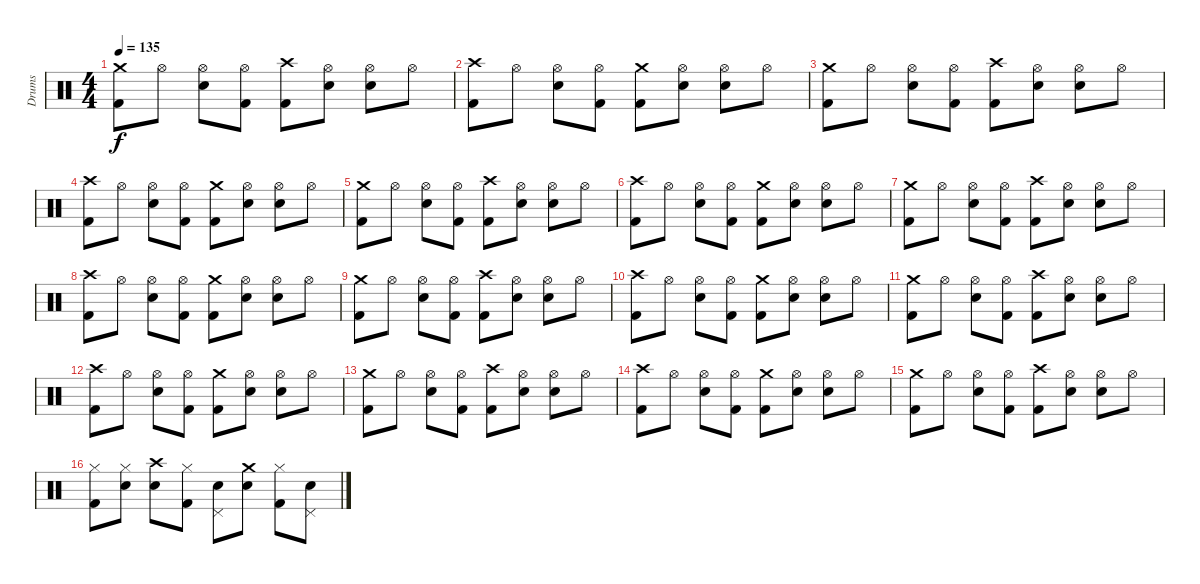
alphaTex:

\track ("Drums" "Drums") {instrument percussion}
\staff {score}
\articulation defaults
\ts (4 4)
\tempo 135
\clef neutral
\ks c
("Crash medium (hit)" "Kick (hit) 2").8{dy f} "Hi-Hat (open)".8 ("Hi-Hat (open)" "Snare (hit) 2").8 ("Hi-Hat (open)" "Kick (hit) 2").8 ("Crash high (hit)" "Kick (hit) 2").8 ("Hi-Hat (open)" "Snare (hit) 2").8 ("Hi-Hat (open)" "Snare (hit) 2").8 "Hi-Hat (open)".8 |
("Crash high (hit)" "Kick (hit) 2").8 "Hi-Hat (open)".8 ("Hi-Hat (open)" "Snare (hit) 2").8 ("Hi-Hat (open)" "Kick (hit) 2").8 ("Crash medium (hit)" "Kick (hit) 2").8 ("Hi-Hat (open)" "Snare (hit) 2").8 ("Hi-Hat (open)" "Snare (hit) 2").8 "Hi-Hat (open)".8 |
("Crash medium (hit)" "Kick (hit) 2").8 "Hi-Hat (open)".8 ("Hi-Hat (open)" "Snare (hit) 2").8 ("Hi-Hat (open)" "Kick (hit) 2").8 ("Crash high (hit)" "Kick (hit) 2").8 ("Hi-Hat (open)" "Snare (hit) 2").8 ("Hi-Hat (open)" "Snare (hit) 2").8 "Hi-Hat (open)".8 |
("Crash high (hit)" "Kick (hit) 2").8 "Hi-Hat (open)".8 ("Hi-Hat (open)" "Snare (hit) 2").8 ("Hi-Hat (open)" "Kick (hit) 2").8 ("Crash medium (hit)" "Kick (hit) 2").8 ("Hi-Hat (open)" "Snare (hit) 2").8 ("Hi-Hat (open)" "Snare (hit) 2").8 "Hi-Hat (open)".8 |
("Crash medium (hit)" "Kick (hit) 2").8 "Hi-Hat (open)".8 ("Hi-Hat (open)" "Snare (hit) 2").8 ("Hi-Hat (open)" "Kick (hit) 2").8 ("Crash high (hit)" "Kick (hit) 2").8 ("Hi-Hat (open)" "Snare (hit) 2").8 ("Hi-Hat (open)" "Snare (hit) 2").8 "Hi-Hat (open)".8 |
("Crash high (hit)" "Kick (hit) 2").8 "Hi-Hat (open)".8 ("Hi-Hat (open)" "Snare (hit) 2").8 ("Hi-Hat (open)" "Kick (hit) 2").8 ("Crash medium (hit)" "Kick (hit) 2").8 ("Hi-Hat (open)" "Snare (hit) 2").8 ("Hi-Hat (open)" "Snare (hit) 2").8 "Hi-Hat (open)".8 |
("Crash medium (hit)" "Kick (hit) 2").8 "Hi-Hat (open)".8 ("Hi-Hat (open)" "Snare (hit) 2").8 ("Hi-Hat (open)" "Kick (hit) 2").8 ("Crash high (hit)" "Kick (hit) 2").8 ("Hi-Hat (open)" "Snare (hit) 2").8 ("Hi-Hat (open)" "Snare (hit) 2").8 "Hi-Hat (open)".8 |
("Crash high (hit)" "Kick (hit) 2").8 "Hi-Hat (open)".8 ("Hi-Hat (open)" "Snare (hit) 2").8 ("Hi-Hat (open)" "Kick (hit) 2").8 ("Crash medium (hit)" "Kick (hit) 2").8 ("Hi-Hat (open)" "Snare (hit) 2").8 ("Hi-Hat (open)" "Snare (hit) 2").8 "Hi-Hat (open)".8 |
("Crash medium (hit)" "Kick (hit) 2").8 "Hi-Hat (open)".8 ("Hi-Hat (open)" "Snare (hit) 2").8 ("Hi-Hat (open)" "Kick (hit) 2").8 ("Crash high (hit)" "Kick (hit) 2").8 ("Hi-Hat (open)" "Snare (hit) 2").8 ("Hi-Hat (open)" "Snare (hit) 2").8 "Hi-Hat (open)".8 |
("Crash high (hit)" "Kick (hit) 2").8 "Hi-Hat (open)".8 ("Hi-Hat (open)" "Snare (hit) 2").8 ("Hi-Hat (open)" "Kick (hit) 2").8 ("Crash medium (hit)" "Kick (hit) 2").8 ("Hi-Hat (open)" "Snare (hit) 2").8 ("Hi-Hat (open)" "Snare (hit) 2").8 "Hi-Hat (open)".8 |
("Crash medium (hit)" "Kick (hit) 2").8 "Hi-Hat (open)".8 ("Hi-Hat (open)" "Snare (hit) 2").8 ("Hi-Hat (open)" "Kick (hit) 2").8 ("Crash high (hit)" "Kick (hit) 2").8 ("Hi-Hat (open)" "Snare (hit) 2").8 ("Hi-Hat (open)" "Snare (hit) 2").8 "Hi-Hat (open)".8 |
("Crash high (hit)" "Kick (hit) 2").8 "Hi-Hat (open)".8 ("Hi-Hat (open)" "Snare (hit) 2").8 ("Hi-Hat (open)" "Kick (hit) 2").8 ("Crash medium (hit)" "Kick (hit) 2").8 ("Hi-Hat (open)" "Snare (hit) 2").8 ("Hi-Hat (open)" "Snare (hit) 2").8 "Hi-Hat (open)".8 |
("Crash medium (hit)" "Kick (hit) 2").8 "Hi-Hat (open)".8 ("Hi-Hat (open)" "Snare (hit) 2").8 ("Hi-Hat (open)" "Kick (hit) 2").8 ("Crash high (hit)" "Kick (hit) 2").8 ("Hi-Hat (open)" "Snare (hit) 2").8 ("Hi-Hat (open)" "Snare (hit) 2").8 "Hi-Hat (open)".8 |
("Crash high (hit)" "Kick (hit) 2").8 "Hi-Hat (open)".8 ("Hi-Hat (open)" "Snare (hit) 2").8 ("Hi-Hat (open)" "Kick (hit) 2").8 ("Crash medium (hit)" "Kick (hit) 2").8 ("Hi-Hat (open)" "Snare (hit) 2").8 ("Hi-Hat (open)" "Snare (hit) 2").8 "Hi-Hat (open)".8 |
("Crash medium (hit)" "Kick (hit) 2").8 "Hi-Hat (open)".8 ("Hi-Hat (open)" "Snare (hit) 2").8 ("Hi-Hat (open)" "Kick (hit) 2").8 ("Crash high (hit)" "Kick (hit) 2").8 ("Hi-Hat (open)" "Snare (hit) 2").8 ("Hi-Hat (open)" "Snare (hit) 2").8 "Hi-Hat (open)".8 |
("Hi-Hat (closed)" "Kick (hit) 2").8 ("Hi-Hat (closed)" "Snare (hit) 2").8 ("Crash high (hit)" "Snare (hit) 2").8 ("Hi-Hat (closed)" "Kick (hit) 2").8 ("Pedal Hi-Hat (hit)" "Snare (hit) 2").8 ("Crash medium (hit)" "Snare (hit) 2").8 ("Hi-Hat (closed)" "Kick (hit) 2").8 ("Pedal Hi-Hat (hit)" "Snare (hit) 2").8
